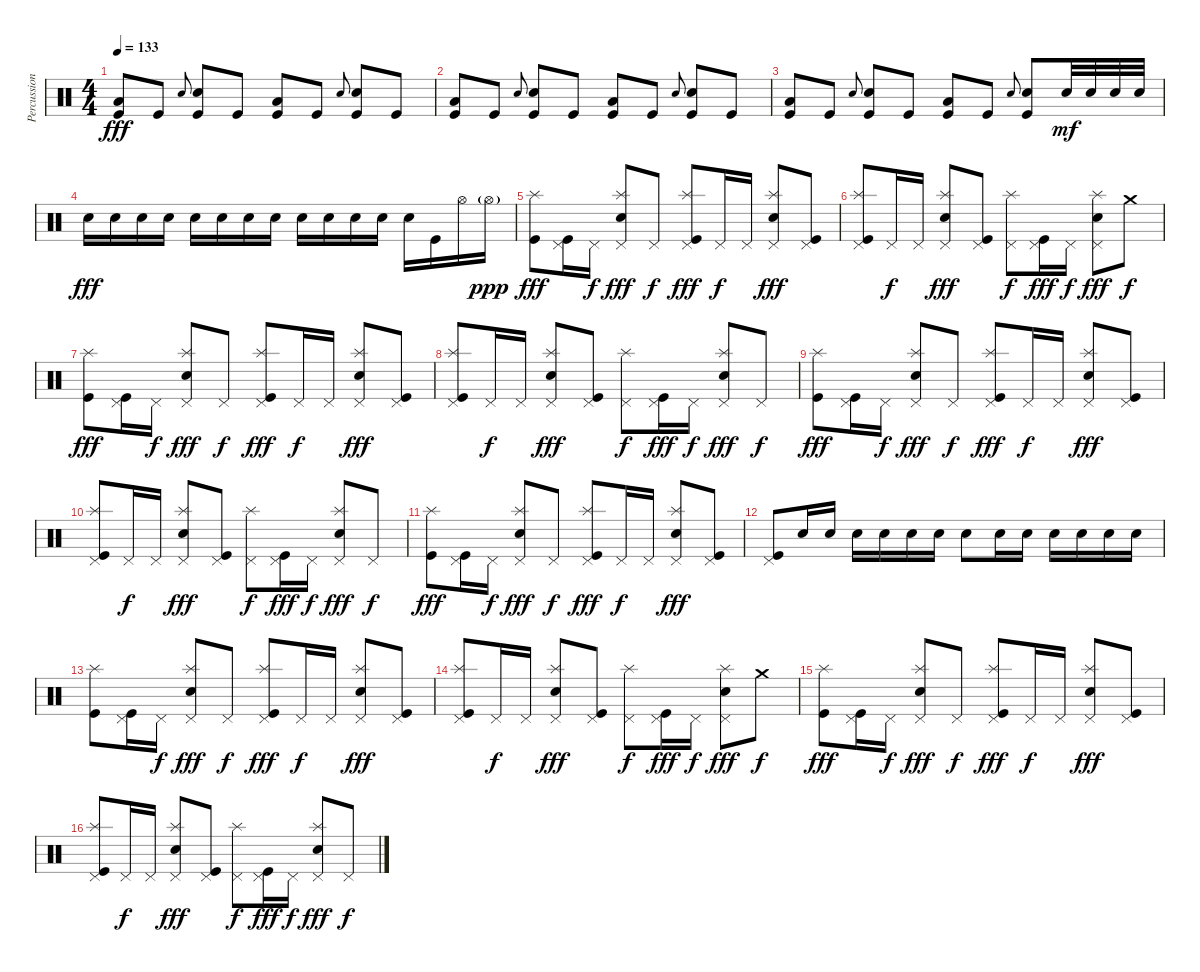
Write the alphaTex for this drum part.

\track ("Percussion" "Percussion") {instrument percussion}
\staff {score}
\articulation defaults
\ts (4 4)
\tempo 133
\clef neutral
\ks c
("Low Floor Tom (hit)" "Kick (hit)").8{dy fff} "Kick (hit)".8 "Snare (hit) 2".8{gr onbeat} ("Snare (hit) 2" "Kick (hit)").8 "Kick (hit)".8 ("Low Floor Tom (hit)" "Kick (hit)").8 "Kick (hit)".8 "Snare (hit) 2".8{gr onbeat} ("Snare (hit) 2" "Kick (hit)").8 "Kick (hit)".8 |
("Low Floor Tom (hit)" "Kick (hit)").8 "Kick (hit)".8 "Snare (hit) 2".8{gr onbeat} ("Snare (hit) 2" "Kick (hit)").8 "Kick (hit)".8 ("Low Floor Tom (hit)" "Kick (hit)").8 "Kick (hit)".8 "Snare (hit) 2".8{gr onbeat} ("Snare (hit) 2" "Kick (hit)").8 "Kick (hit)".8 |
("Low Floor Tom (hit)" "Kick (hit)").8 "Kick (hit)".8 "Snare (hit) 2".8{gr onbeat} ("Snare (hit) 2" "Kick (hit)").8 "Kick (hit)".8 ("Low Floor Tom (hit)" "Kick (hit)").8 "Kick (hit)".8 "Snare (hit) 2".8{gr onbeat} ("Snare (hit) 2" "Kick (hit)").8 "Snare (hit) 2".32{dy mf} "Snare (hit) 2".32 "Snare (hit) 2".32 "Snare (hit) 2".32 |
"Snare (hit) 2".16{dy fff} "Snare (hit) 2".16 "Snare (hit) 2".16 "Snare (hit) 2".16 "Snare (hit) 2".16 "Snare (hit) 2".16 "Snare (hit) 2".16 "Snare (hit) 2".16 "Snare (hit) 2".16 "Snare (hit) 2".16 "Snare (hit) 2".16 "Snare (hit) 2".16 "Snare (hit) 2".16 "Kick (hit)".16 "Hi-Hat (open)".16 "Hi-Hat (open)"{g}.16{dy ppp} |
("Splash (hit)" "Kick (hit)").8{dy fff} ("Pedal Hi-Hat (hit)" "Kick (hit)").16 "Pedal Hi-Hat (hit)".16{dy f} ("Snare (hit) 2" "Pedal Hi-Hat (hit)" "Splash (hit)").8{dy fff} "Pedal Hi-Hat (hit)".8{dy f} ("Pedal Hi-Hat (hit)" "Splash (hit)" "Kick (hit)").8{dy fff} "Pedal Hi-Hat (hit)".16{dy f} "Pedal Hi-Hat (hit)".16 ("Snare (hit) 2" "Pedal Hi-Hat (hit)" "Splash (hit)").8{dy fff} ("Pedal Hi-Hat (hit)" "Kick (hit)").8 |
("Pedal Hi-Hat (hit)" "Splash (hit)" "Kick (hit)").8 "Pedal Hi-Hat (hit)".16{dy f} "Pedal Hi-Hat (hit)".16 ("Snare (hit) 2" "Pedal Hi-Hat (hit)" "Splash (hit)").8{dy fff} ("Pedal Hi-Hat (hit)" "Kick (hit)").8 ("Pedal Hi-Hat (hit)" "Splash (hit)").8{dy f} ("Pedal Hi-Hat (hit)" "Kick (hit)").16{dy fff} "Pedal Hi-Hat (hit)".16{dy f} ("Snare (hit) 2" "Pedal Hi-Hat (hit)" "Splash (hit)").8{dy fff} "Crash medium (hit)".8{dy f} |
("Splash (hit)" "Kick (hit)").8{dy fff} ("Pedal Hi-Hat (hit)" "Kick (hit)").16 "Pedal Hi-Hat (hit)".16{dy f} ("Snare (hit) 2" "Pedal Hi-Hat (hit)" "Splash (hit)").8{dy fff} "Pedal Hi-Hat (hit)".8{dy f} ("Pedal Hi-Hat (hit)" "Splash (hit)" "Kick (hit)").8{dy fff} "Pedal Hi-Hat (hit)".16{dy f} "Pedal Hi-Hat (hit)".16 ("Snare (hit) 2" "Pedal Hi-Hat (hit)" "Splash (hit)").8{dy fff} ("Pedal Hi-Hat (hit)" "Kick (hit)").8 |
("Pedal Hi-Hat (hit)" "Splash (hit)" "Kick (hit)").8 "Pedal Hi-Hat (hit)".16{dy f} "Pedal Hi-Hat (hit)".16 ("Snare (hit) 2" "Pedal Hi-Hat (hit)" "Splash (hit)").8{dy fff} ("Pedal Hi-Hat (hit)" "Kick (hit)").8 ("Pedal Hi-Hat (hit)" "Splash (hit)").8{dy f} ("Pedal Hi-Hat (hit)" "Kick (hit)").16{dy fff} "Pedal Hi-Hat (hit)".16{dy f} ("Snare (hit) 2" "Pedal Hi-Hat (hit)" "Splash (hit)").8{dy fff} "Pedal Hi-Hat (hit)".8{dy f} |
("Splash (hit)" "Kick (hit)").8{dy fff} ("Pedal Hi-Hat (hit)" "Kick (hit)").16 "Pedal Hi-Hat (hit)".16{dy f} ("Snare (hit) 2" "Pedal Hi-Hat (hit)" "Splash (hit)").8{dy fff} "Pedal Hi-Hat (hit)".8{dy f} ("Pedal Hi-Hat (hit)" "Splash (hit)" "Kick (hit)").8{dy fff} "Pedal Hi-Hat (hit)".16{dy f} "Pedal Hi-Hat (hit)".16 ("Snare (hit) 2" "Pedal Hi-Hat (hit)" "Splash (hit)").8{dy fff} ("Pedal Hi-Hat (hit)" "Kick (hit)").8 |
("Pedal Hi-Hat (hit)" "Splash (hit)" "Kick (hit)").8 "Pedal Hi-Hat (hit)".16{dy f} "Pedal Hi-Hat (hit)".16 ("Snare (hit) 2" "Pedal Hi-Hat (hit)" "Splash (hit)").8{dy fff} ("Pedal Hi-Hat (hit)" "Kick (hit)").8 ("Pedal Hi-Hat (hit)" "Splash (hit)").8{dy f} ("Pedal Hi-Hat (hit)" "Kick (hit)").16{dy fff} "Pedal Hi-Hat (hit)".16{dy f} ("Snare (hit) 2" "Pedal Hi-Hat (hit)" "Splash (hit)").8{dy fff} "Pedal Hi-Hat (hit)".8{dy f} |
("Splash (hit)" "Kick (hit)").8{dy fff} ("Pedal Hi-Hat (hit)" "Kick (hit)").16 "Pedal Hi-Hat (hit)".16{dy f} ("Snare (hit) 2" "Pedal Hi-Hat (hit)" "Splash (hit)").8{dy fff} "Pedal Hi-Hat (hit)".8{dy f} ("Pedal Hi-Hat (hit)" "Splash (hit)" "Kick (hit)").8{dy fff} "Pedal Hi-Hat (hit)".16{dy f} "Pedal Hi-Hat (hit)".16 ("Snare (hit) 2" "Pedal Hi-Hat (hit)" "Splash (hit)").8{dy fff} ("Pedal Hi-Hat (hit)" "Kick (hit)").8 |
("Pedal Hi-Hat (hit)" "Kick (hit)").8 "Snare (hit) 2".16 "Snare (hit) 2".16 "Snare (hit) 2".16 "Snare (hit) 2".16 "Snare (hit) 2".16 "Snare (hit) 2".16 "Snare (hit) 2".8 "Snare (hit) 2".16 "Snare (hit) 2".16 "Snare (hit) 2".16 "Snare (hit) 2".16 "Snare (hit) 2".16 "Snare (hit) 2".16 |
("Splash (hit)" "Kick (hit)").8 ("Pedal Hi-Hat (hit)" "Kick (hit)").16 "Pedal Hi-Hat (hit)".16{dy f} ("Snare (hit) 2" "Pedal Hi-Hat (hit)" "Splash (hit)").8{dy fff} "Pedal Hi-Hat (hit)".8{dy f} ("Pedal Hi-Hat (hit)" "Splash (hit)" "Kick (hit)").8{dy fff} "Pedal Hi-Hat (hit)".16{dy f} "Pedal Hi-Hat (hit)".16 ("Snare (hit) 2" "Pedal Hi-Hat (hit)" "Splash (hit)").8{dy fff} ("Pedal Hi-Hat (hit)" "Kick (hit)").8 |
("Pedal Hi-Hat (hit)" "Splash (hit)" "Kick (hit)").8 "Pedal Hi-Hat (hit)".16{dy f} "Pedal Hi-Hat (hit)".16 ("Snare (hit) 2" "Pedal Hi-Hat (hit)" "Splash (hit)").8{dy fff} ("Pedal Hi-Hat (hit)" "Kick (hit)").8 ("Pedal Hi-Hat (hit)" "Splash (hit)").8{dy f} ("Pedal Hi-Hat (hit)" "Kick (hit)").16{dy fff} "Pedal Hi-Hat (hit)".16{dy f} ("Snare (hit) 2" "Pedal Hi-Hat (hit)" "Splash (hit)").8{dy fff} "Crash medium (hit)".8{dy f} |
("Splash (hit)" "Kick (hit)").8{dy fff} ("Pedal Hi-Hat (hit)" "Kick (hit)").16 "Pedal Hi-Hat (hit)".16{dy f} ("Snare (hit) 2" "Pedal Hi-Hat (hit)" "Splash (hit)").8{dy fff} "Pedal Hi-Hat (hit)".8{dy f} ("Pedal Hi-Hat (hit)" "Splash (hit)" "Kick (hit)").8{dy fff} "Pedal Hi-Hat (hit)".16{dy f} "Pedal Hi-Hat (hit)".16 ("Snare (hit) 2" "Pedal Hi-Hat (hit)" "Splash (hit)").8{dy fff} ("Pedal Hi-Hat (hit)" "Kick (hit)").8 |
("Pedal Hi-Hat (hit)" "Splash (hit)" "Kick (hit)").8 "Pedal Hi-Hat (hit)".16{dy f} "Pedal Hi-Hat (hit)".16 ("Snare (hit) 2" "Pedal Hi-Hat (hit)" "Splash (hit)").8{dy fff} ("Pedal Hi-Hat (hit)" "Kick (hit)").8 ("Pedal Hi-Hat (hit)" "Splash (hit)").8{dy f} ("Pedal Hi-Hat (hit)" "Kick (hit)").16{dy fff} "Pedal Hi-Hat (hit)".16{dy f} ("Snare (hit) 2" "Pedal Hi-Hat (hit)" "Splash (hit)").8{dy fff} "Pedal Hi-Hat (hit)".8{dy f}
